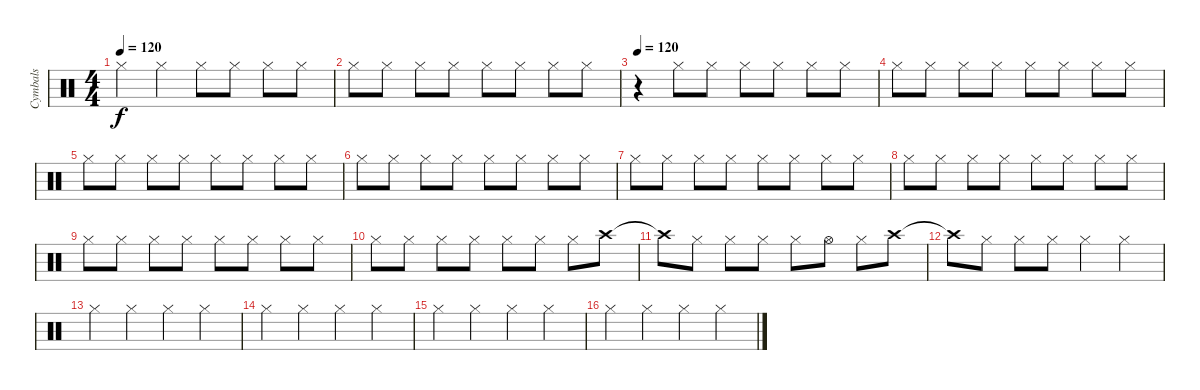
\track ("Cymbals" "Cymbals") {instrument percussion}
\staff {score}
\articulation defaults
\ts (4 4)
\tempo 120
\clef neutral
\ks c "Hi-Hat (closed)".4{dy f} "Hi-Hat (closed)".4 "Hi-Hat (closed)".8 "Hi-Hat (closed)".8 "Hi-Hat (closed)".8 "Hi-Hat (closed)".8
|
"Hi-Hat (closed)".8 "Hi-Hat (closed)".8 "Hi-Hat (closed)".8 "Hi-Hat (closed)".8 "Hi-Hat (closed)".8 "Hi-Hat (closed)".8 "Hi-Hat (closed)".8 "Hi-Hat (closed)".8 |
\tempo 120
r.4 "Hi-Hat (closed)".8 "Hi-Hat (closed)".8 "Hi-Hat (closed)".8 "Hi-Hat (closed)".8 "Hi-Hat (closed)".8 "Hi-Hat (closed)".8 |
"Hi-Hat (closed)".8 "Hi-Hat (closed)".8 "Hi-Hat (closed)".8 "Hi-Hat (closed)".8 "Hi-Hat (closed)".8 "Hi-Hat (closed)".8 "Hi-Hat (closed)".8 "Hi-Hat (closed)".8 |
"Hi-Hat (closed)".8 "Hi-Hat (closed)".8 "Hi-Hat (closed)".8 "Hi-Hat (closed)".8 "Hi-Hat (closed)".8 "Hi-Hat (closed)".8 "Hi-Hat (closed)".8 "Hi-Hat (closed)".8 |
"Hi-Hat (closed)".8 "Hi-Hat (closed)".8 "Hi-Hat (closed)".8 "Hi-Hat (closed)".8 "Hi-Hat (closed)".8 "Hi-Hat (closed)".8 "Hi-Hat (closed)".8 "Hi-Hat (closed)".8 |
"Hi-Hat (closed)".8 "Hi-Hat (closed)".8 "Hi-Hat (closed)".8 "Hi-Hat (closed)".8 "Hi-Hat (closed)".8 "Hi-Hat (closed)".8 "Hi-Hat (closed)".8 "Hi-Hat (closed)".8 |
"Hi-Hat (closed)".8 "Hi-Hat (closed)".8 "Hi-Hat (closed)".8 "Hi-Hat (closed)".8 "Hi-Hat (closed)".8 "Hi-Hat (closed)".8 "Hi-Hat (closed)".8 "Hi-Hat (closed)".8 |
"Hi-Hat (closed)".8 "Hi-Hat (closed)".8 "Hi-Hat (closed)".8 "Hi-Hat (closed)".8 "Hi-Hat (closed)".8 "Hi-Hat (closed)".8 "Hi-Hat (closed)".8 "Hi-Hat (closed)".8 |
"Hi-Hat (closed)".8 "Hi-Hat (closed)".8 "Hi-Hat (closed)".8 "Hi-Hat (closed)".8 "Hi-Hat (closed)".8 "Hi-Hat (closed)".8 "Hi-Hat (closed)".8 "Crash high (hit)".8 |
"Crash high (hit)"{t}.8 "Hi-Hat (closed)".8 "Hi-Hat (closed)".8 "Hi-Hat (closed)".8 "Hi-Hat (closed)".8 "Hi-Hat (open)".8 "Hi-Hat (closed)".8 "Crash high (hit)".8 |
"Crash high (hit)"{t}.8 "Hi-Hat (closed)".8 "Hi-Hat (closed)".8 "Hi-Hat (closed)".8 "Hi-Hat (closed)".4 "Hi-Hat (closed)".4 |
"Hi-Hat (closed)".4 "Hi-Hat (closed)".4 "Hi-Hat (closed)".4 "Hi-Hat (closed)".4 |
"Hi-Hat (closed)".4 "Hi-Hat (closed)".4 "Hi-Hat (closed)".4 "Hi-Hat (closed)".4 |
"Hi-Hat (closed)".4 "Hi-Hat (closed)".4 "Hi-Hat (closed)".4 "Hi-Hat (closed)".4 |
"Hi-Hat (closed)".4 "Hi-Hat (closed)".4 "Hi-Hat (closed)".4 "Hi-Hat (closed)".4
